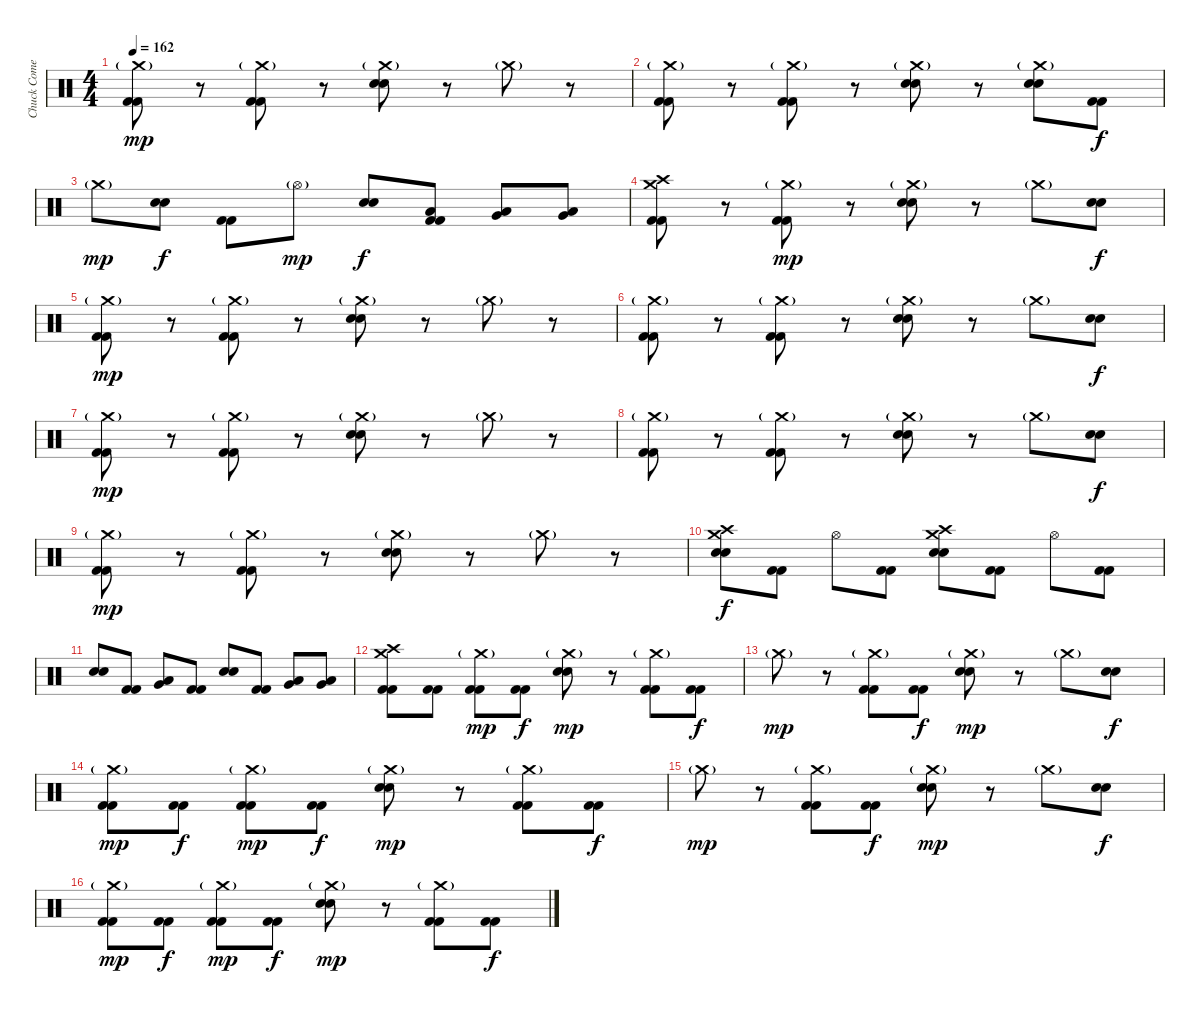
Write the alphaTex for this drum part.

\track ("Chuck Comeau" "Chuck Come") {instrument percussion}
\staff {score}
\articulation defaults
\ts (4 4)
\tempo 162
\clef neutral
\ks c
("Crash medium (hit)"{g} "Kick (hit) 2" "Kick (hit) 2").8{dy mp} r.8 ("Crash medium (hit)"{g} "Kick (hit) 2" "Kick (hit) 2").8 r.8 ("Crash medium (hit)"{g} "Snare (hit) 2" "Snare (hit) 2").8 r.8 "Crash medium (hit)"{g}.8 r.8 |
("Crash medium (hit)"{g} "Kick (hit) 2" "Kick (hit) 2").8 r.8 ("Crash medium (hit)"{g} "Kick (hit) 2" "Kick (hit) 2").8 r.8 ("Crash medium (hit)"{g} "Snare (hit) 2" "Snare (hit) 2").8 r.8 ("Crash medium (hit)"{g} "Snare (hit) 2" "Snare (hit) 2").8 ("Kick (hit) 2" "Kick (hit) 2").8{dy f} |
"Crash medium (hit)"{g}.8{dy mp} ("Snare (hit) 2" "Snare (hit) 2").8{dy f} ("Kick (hit) 2" "Kick (hit) 2").8 "Hi-Hat (open)"{g}.8{dy mp} ("Snare (hit) 2" "Snare (hit) 2"{tr (38 16)}).8{dy f} ("Low Tom (hit)" "Kick (hit) 2" "Kick (hit) 2").8 ("Low Tom (hit)" "Very Low Tom (hit)").8 ("Very Low Tom (hit)" "Low Floor Tom (hit)").8 |
("Crash medium (hit)" "Crash high (hit)" "Kick (hit) 2" "Kick (hit) 2").8 r.8 ("Crash medium (hit)"{g} "Kick (hit) 2" "Kick (hit) 2").8{dy mp} r.8 ("Crash medium (hit)"{g} "Snare (hit) 2" "Snare (hit) 2").8 r.8 "Crash medium (hit)"{g}.8 ("Snare (hit) 2" "Snare (hit) 2").8{dy f} |
("Crash medium (hit)"{g} "Kick (hit) 2" "Kick (hit) 2").8{dy mp} r.8 ("Crash medium (hit)"{g} "Kick (hit) 2" "Kick (hit) 2").8 r.8 ("Crash medium (hit)"{g} "Snare (hit) 2" "Snare (hit) 2").8 r.8 "Crash medium (hit)"{g}.8 r.8 |
("Crash medium (hit)"{g} "Kick (hit) 2" "Kick (hit) 2").8 r.8 ("Crash medium (hit)"{g} "Kick (hit) 2" "Kick (hit) 2").8 r.8 ("Crash medium (hit)"{g} "Snare (hit) 2" "Snare (hit) 2").8 r.8 "Crash medium (hit)"{g}.8 ("Snare (hit) 2" "Snare (hit) 2").8{dy f} |
("Crash medium (hit)"{g} "Kick (hit) 2" "Kick (hit) 2").8{dy mp} r.8 ("Crash medium (hit)"{g} "Kick (hit) 2" "Kick (hit) 2").8 r.8 ("Crash medium (hit)"{g} "Snare (hit) 2" "Snare (hit) 2").8 r.8 "Crash medium (hit)"{g}.8 r.8 |
("Crash medium (hit)"{g} "Kick (hit) 2" "Kick (hit) 2").8 r.8 ("Crash medium (hit)"{g} "Kick (hit) 2" "Kick (hit) 2").8 r.8 ("Crash medium (hit)"{g} "Snare (hit) 2" "Snare (hit) 2").8 r.8 "Crash medium (hit)"{g}.8 ("Snare (hit) 2" "Snare (hit) 2").8{dy f} |
("Crash medium (hit)"{g} "Kick (hit) 2" "Kick (hit) 2").8{dy mp} r.8 ("Crash medium (hit)"{g} "Kick (hit) 2" "Kick (hit) 2").8 r.8 ("Crash medium (hit)"{g} "Snare (hit) 2" "Snare (hit) 2").8 r.8 "Crash medium (hit)"{g}.8 r.8 |
("Crash medium (hit)" "Crash high (hit)" "Snare (hit) 2" "Snare (hit) 2").8{dy f} ("Kick (hit) 2" "Kick (hit) 2").8 "Hi-Hat (open)".8 ("Kick (hit) 2" "Kick (hit) 2").8 ("Crash medium (hit)" "Crash high (hit)" "Snare (hit) 2" "Snare (hit) 2").8 ("Kick (hit) 2" "Kick (hit) 2").8 "Hi-Hat (open)".8 ("Kick (hit) 2" "Kick (hit) 2").8 |
("Snare (hit) 2" "Snare (hit) 2").8 ("Kick (hit) 2" "Kick (hit) 2").8 ("Low Tom (hit)" "Very Low Tom (hit)").8 ("Kick (hit) 2" "Kick (hit) 2").8 ("Snare (hit) 2" "Snare (hit) 2").8 ("Kick (hit) 2" "Kick (hit) 2").8 ("Low Tom (hit)" "Very Low Tom (hit)").8 ("Very Low Tom (hit)" "Low Floor Tom (hit)").8 |
("Crash medium (hit)" "Crash high (hit)" "Kick (hit) 2" "Kick (hit) 2").8 ("Kick (hit) 2" "Kick (hit) 2").8 ("Crash medium (hit)"{g} "Kick (hit) 2" "Kick (hit) 2").8{dy mp} ("Kick (hit) 2" "Kick (hit) 2").8{dy f} ("Crash medium (hit)"{g} "Snare (hit) 2" "Snare (hit) 2").8{dy mp} r.8 ("Crash medium (hit)"{g} "Kick (hit) 2" "Kick (hit) 2").8 ("Kick (hit) 2" "Kick (hit) 2").8{dy f} |
"Crash medium (hit)"{g}.8{dy mp} r.8 ("Crash medium (hit)"{g} "Kick (hit) 2" "Kick (hit) 2").8 ("Kick (hit) 2" "Kick (hit) 2").8{dy f} ("Crash medium (hit)"{g} "Snare (hit) 2" "Snare (hit) 2").8{dy mp} r.8 "Crash medium (hit)"{g}.8 ("Snare (hit) 2" "Snare (hit) 2").8{dy f} |
("Crash medium (hit)"{g} "Kick (hit) 2" "Kick (hit) 2").8{dy mp} ("Kick (hit) 2" "Kick (hit) 2").8{dy f} ("Crash medium (hit)"{g} "Kick (hit) 2" "Kick (hit) 2").8{dy mp} ("Kick (hit) 2" "Kick (hit) 2").8{dy f} ("Crash medium (hit)"{g} "Snare (hit) 2" "Snare (hit) 2").8{dy mp} r.8 ("Crash medium (hit)"{g} "Kick (hit) 2" "Kick (hit) 2").8 ("Kick (hit) 2" "Kick (hit) 2").8{dy f} |
"Crash medium (hit)"{g}.8{dy mp} r.8 ("Crash medium (hit)"{g} "Kick (hit) 2" "Kick (hit) 2").8 ("Kick (hit) 2" "Kick (hit) 2").8{dy f} ("Crash medium (hit)"{g} "Snare (hit) 2" "Snare (hit) 2").8{dy mp} r.8 "Crash medium (hit)"{g}.8 ("Snare (hit) 2" "Snare (hit) 2").8{dy f} |
("Crash medium (hit)"{g} "Kick (hit) 2" "Kick (hit) 2").8{dy mp} ("Kick (hit) 2" "Kick (hit) 2").8{dy f} ("Crash medium (hit)"{g} "Kick (hit) 2" "Kick (hit) 2").8{dy mp} ("Kick (hit) 2" "Kick (hit) 2").8{dy f} ("Crash medium (hit)"{g} "Snare (hit) 2" "Snare (hit) 2").8{dy mp} r.8 ("Crash medium (hit)"{g} "Kick (hit) 2" "Kick (hit) 2").8 ("Kick (hit) 2" "Kick (hit) 2").8{dy f}
